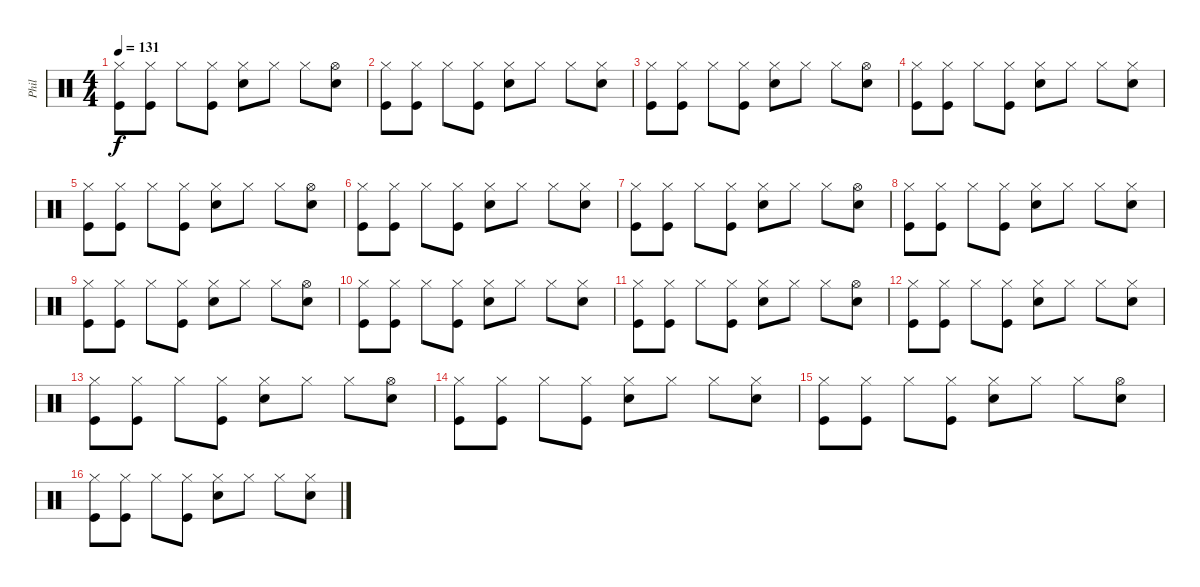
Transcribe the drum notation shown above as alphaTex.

\track ("Phil" "Phil") {instrument percussion}
\staff {score}
\articulation defaults
\ts (4 4)
\tempo 131
\clef neutral
\ks c
("Hi-Hat (closed)" "Kick (hit)").8{dy f} ("Hi-Hat (closed)" "Kick (hit)").8 "Hi-Hat (closed)".8 ("Hi-Hat (closed)" "Kick (hit)").8 ("Hi-Hat (closed)" "Electric Snare (hit)").8 "Hi-Hat (closed)".8 "Hi-Hat (closed)".8 ("Hi-Hat (open)" "Electric Snare (hit)").8 |
("Hi-Hat (closed)" "Kick (hit)").8 ("Hi-Hat (closed)" "Kick (hit)").8 "Hi-Hat (closed)".8 ("Hi-Hat (closed)" "Kick (hit)").8 ("Hi-Hat (closed)" "Electric Snare (hit)").8 "Hi-Hat (closed)".8 "Hi-Hat (closed)".8 ("Hi-Hat (closed)" "Electric Snare (hit)").8 |
("Hi-Hat (closed)" "Kick (hit)").8 ("Hi-Hat (closed)" "Kick (hit)").8 "Hi-Hat (closed)".8 ("Hi-Hat (closed)" "Kick (hit)").8 ("Hi-Hat (closed)" "Electric Snare (hit)").8 "Hi-Hat (closed)".8 "Hi-Hat (closed)".8 ("Hi-Hat (open)" "Electric Snare (hit)").8 |
("Hi-Hat (closed)" "Kick (hit)").8 ("Hi-Hat (closed)" "Kick (hit)").8 "Hi-Hat (closed)".8 ("Hi-Hat (closed)" "Kick (hit)").8 ("Hi-Hat (closed)" "Electric Snare (hit)").8 "Hi-Hat (closed)".8 "Hi-Hat (closed)".8 ("Hi-Hat (closed)" "Electric Snare (hit)").8 |
("Hi-Hat (closed)" "Kick (hit)").8 ("Hi-Hat (closed)" "Kick (hit)").8 "Hi-Hat (closed)".8 ("Hi-Hat (closed)" "Kick (hit)").8 ("Hi-Hat (closed)" "Electric Snare (hit)").8 "Hi-Hat (closed)".8 "Hi-Hat (closed)".8 ("Hi-Hat (open)" "Electric Snare (hit)").8 |
("Hi-Hat (closed)" "Kick (hit)").8 ("Hi-Hat (closed)" "Kick (hit)").8 "Hi-Hat (closed)".8 ("Hi-Hat (closed)" "Kick (hit)").8 ("Hi-Hat (closed)" "Electric Snare (hit)").8 "Hi-Hat (closed)".8 "Hi-Hat (closed)".8 ("Hi-Hat (closed)" "Electric Snare (hit)").8 |
("Hi-Hat (closed)" "Kick (hit)").8 ("Hi-Hat (closed)" "Kick (hit)").8 "Hi-Hat (closed)".8 ("Hi-Hat (closed)" "Kick (hit)").8 ("Hi-Hat (closed)" "Electric Snare (hit)").8 "Hi-Hat (closed)".8 "Hi-Hat (closed)".8 ("Hi-Hat (open)" "Electric Snare (hit)").8 |
("Hi-Hat (closed)" "Kick (hit)").8 ("Hi-Hat (closed)" "Kick (hit)").8 "Hi-Hat (closed)".8 ("Hi-Hat (closed)" "Kick (hit)").8 ("Hi-Hat (closed)" "Electric Snare (hit)").8 "Hi-Hat (closed)".8 "Hi-Hat (closed)".8 ("Hi-Hat (closed)" "Electric Snare (hit)").8 |
("Hi-Hat (closed)" "Kick (hit)").8 ("Hi-Hat (closed)" "Kick (hit)").8 "Hi-Hat (closed)".8 ("Hi-Hat (closed)" "Kick (hit)").8 ("Hi-Hat (closed)" "Electric Snare (hit)").8 "Hi-Hat (closed)".8 "Hi-Hat (closed)".8 ("Hi-Hat (open)" "Electric Snare (hit)").8 |
("Hi-Hat (closed)" "Kick (hit)").8 ("Hi-Hat (closed)" "Kick (hit)").8 "Hi-Hat (closed)".8 ("Hi-Hat (closed)" "Kick (hit)").8 ("Hi-Hat (closed)" "Electric Snare (hit)").8 "Hi-Hat (closed)".8 "Hi-Hat (closed)".8 ("Hi-Hat (closed)" "Electric Snare (hit)").8 |
("Hi-Hat (closed)" "Kick (hit)").8 ("Hi-Hat (closed)" "Kick (hit)").8 "Hi-Hat (closed)".8 ("Hi-Hat (closed)" "Kick (hit)").8 ("Hi-Hat (closed)" "Electric Snare (hit)").8 "Hi-Hat (closed)".8 "Hi-Hat (closed)".8 ("Hi-Hat (open)" "Electric Snare (hit)").8 |
("Hi-Hat (closed)" "Kick (hit)").8 ("Hi-Hat (closed)" "Kick (hit)").8 "Hi-Hat (closed)".8 ("Hi-Hat (closed)" "Kick (hit)").8 ("Hi-Hat (closed)" "Electric Snare (hit)").8 "Hi-Hat (closed)".8 "Hi-Hat (closed)".8 ("Hi-Hat (closed)" "Electric Snare (hit)").8 |
("Hi-Hat (closed)" "Kick (hit)").8 ("Hi-Hat (closed)" "Kick (hit)").8 "Hi-Hat (closed)".8 ("Hi-Hat (closed)" "Kick (hit)").8 ("Hi-Hat (closed)" "Electric Snare (hit)").8 "Hi-Hat (closed)".8 "Hi-Hat (closed)".8 ("Hi-Hat (open)" "Electric Snare (hit)").8 |
("Hi-Hat (closed)" "Kick (hit)").8 ("Hi-Hat (closed)" "Kick (hit)").8 "Hi-Hat (closed)".8 ("Hi-Hat (closed)" "Kick (hit)").8 ("Hi-Hat (closed)" "Electric Snare (hit)").8 "Hi-Hat (closed)".8 "Hi-Hat (closed)".8 ("Hi-Hat (closed)" "Electric Snare (hit)").8 |
("Hi-Hat (closed)" "Kick (hit)").8 ("Hi-Hat (closed)" "Kick (hit)").8 "Hi-Hat (closed)".8 ("Hi-Hat (closed)" "Kick (hit)").8 ("Hi-Hat (closed)" "Electric Snare (hit)").8 "Hi-Hat (closed)".8 "Hi-Hat (closed)".8 ("Hi-Hat (open)" "Electric Snare (hit)").8 |
("Hi-Hat (closed)" "Kick (hit)").8 ("Hi-Hat (closed)" "Kick (hit)").8 "Hi-Hat (closed)".8 ("Hi-Hat (closed)" "Kick (hit)").8 ("Hi-Hat (closed)" "Electric Snare (hit)").8 "Hi-Hat (closed)".8 "Hi-Hat (closed)".8 ("Hi-Hat (closed)" "Electric Snare (hit)").8
